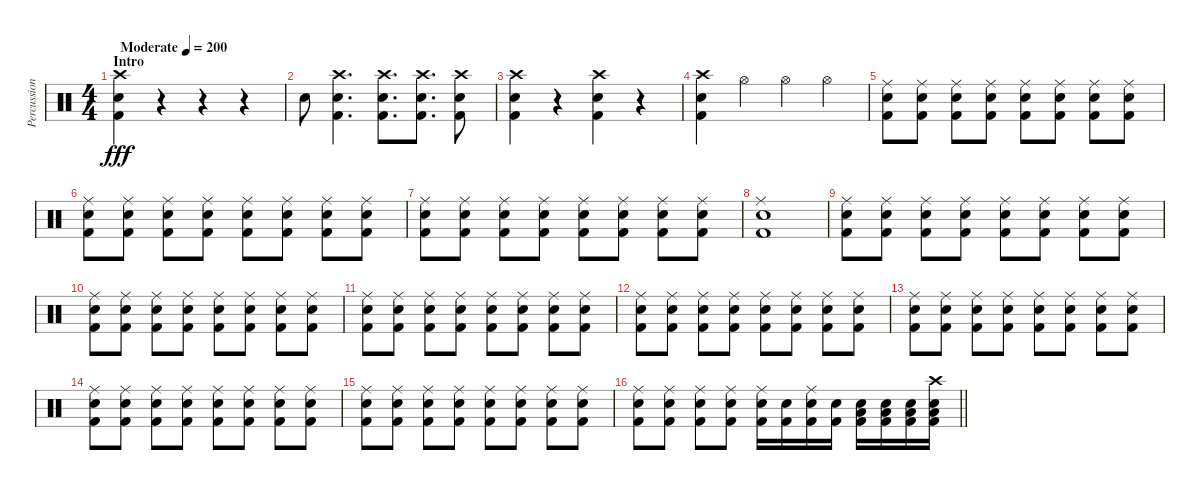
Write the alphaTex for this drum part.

\track ("Percussion" "Percussion") {instrument percussion}
\staff {score}
\articulation defaults
\ts (4 4)
\section ("" "Intro")
\tempo (200 "Moderate")
\clef neutral
\ks c
("Crash high (hit)" "Electric Snare (hit)" "Kick (hit) 2").4{dy fff} r.4 r.4 r.4 |
"Electric Snare (hit)".8 ("Crash high (hit)" "Electric Snare (hit)" "Kick (hit) 2").4{d} ("Crash high (hit)" "Electric Snare (hit)" "Kick (hit) 2").8{d} ("Crash high (hit)" "Electric Snare (hit)" "Kick (hit) 2").8{d} ("Crash high (hit)" "Electric Snare (hit)" "Kick (hit) 2").8 |
("Crash high (hit)" "Electric Snare (hit)" "Kick (hit) 2").4 r.4 ("Crash high (hit)" "Electric Snare (hit)" "Kick (hit) 2").4 r.4 |
("Crash high (hit)" "Electric Snare (hit)" "Kick (hit) 2").4 "Hi-Hat (open)".4 "Hi-Hat (open)".4 "Hi-Hat (open)".4 |
("Ride (middle)" "Electric Snare (hit)" "Kick (hit) 2").8 ("Ride (middle)" "Electric Snare (hit)" "Kick (hit) 2").8 ("Ride (middle)" "Electric Snare (hit)" "Kick (hit) 2").8 ("Ride (middle)" "Electric Snare (hit)" "Kick (hit) 2").8 ("Ride (middle)" "Electric Snare (hit)" "Kick (hit) 2").8 ("Ride (middle)" "Electric Snare (hit)" "Kick (hit) 2").8 ("Ride (middle)" "Electric Snare (hit)" "Kick (hit) 2").8 ("Ride (middle)" "Electric Snare (hit)" "Kick (hit) 2").8 |
("Ride (middle)" "Electric Snare (hit)" "Kick (hit) 2").8 ("Ride (middle)" "Electric Snare (hit)" "Kick (hit) 2").8 ("Ride (middle)" "Electric Snare (hit)" "Kick (hit) 2").8 ("Ride (middle)" "Electric Snare (hit)" "Kick (hit) 2").8 ("Ride (middle)" "Electric Snare (hit)" "Kick (hit) 2").8 ("Ride (middle)" "Electric Snare (hit)" "Kick (hit) 2").8 ("Ride (middle)" "Electric Snare (hit)" "Kick (hit) 2").8 ("Ride (middle)" "Electric Snare (hit)" "Kick (hit) 2").8 |
("Ride (middle)" "Electric Snare (hit)" "Kick (hit) 2").8 ("Ride (middle)" "Electric Snare (hit)" "Kick (hit) 2").8 ("Ride (middle)" "Electric Snare (hit)" "Kick (hit) 2").8 ("Ride (middle)" "Electric Snare (hit)" "Kick (hit) 2").8 ("Ride (middle)" "Electric Snare (hit)" "Kick (hit) 2").8 ("Ride (middle)" "Electric Snare (hit)" "Kick (hit) 2").8 ("Ride (middle)" "Electric Snare (hit)" "Kick (hit) 2").8 ("Ride (middle)" "Electric Snare (hit)" "Kick (hit) 2").8 |
("Ride (middle)" "Electric Snare (hit)" "Kick (hit) 2").1 |
("Ride (middle)" "Electric Snare (hit)" "Kick (hit) 2").8 ("Ride (middle)" "Electric Snare (hit)" "Kick (hit) 2").8 ("Ride (middle)" "Electric Snare (hit)" "Kick (hit) 2").8 ("Ride (middle)" "Electric Snare (hit)" "Kick (hit) 2").8 ("Ride (middle)" "Electric Snare (hit)" "Kick (hit) 2").8 ("Ride (middle)" "Electric Snare (hit)" "Kick (hit) 2").8 ("Ride (middle)" "Electric Snare (hit)" "Kick (hit) 2").8 ("Ride (middle)" "Electric Snare (hit)" "Kick (hit) 2").8 |
("Ride (middle)" "Electric Snare (hit)" "Kick (hit) 2").8 ("Ride (middle)" "Electric Snare (hit)" "Kick (hit) 2").8 ("Ride (middle)" "Electric Snare (hit)" "Kick (hit) 2").8 ("Ride (middle)" "Electric Snare (hit)" "Kick (hit) 2").8 ("Ride (middle)" "Electric Snare (hit)" "Kick (hit) 2").8 ("Ride (middle)" "Electric Snare (hit)" "Kick (hit) 2").8 ("Ride (middle)" "Electric Snare (hit)" "Kick (hit) 2").8 ("Ride (middle)" "Electric Snare (hit)" "Kick (hit) 2").8 |
("Ride (middle)" "Electric Snare (hit)" "Kick (hit) 2").8 ("Ride (middle)" "Electric Snare (hit)" "Kick (hit) 2").8 ("Ride (middle)" "Electric Snare (hit)" "Kick (hit) 2").8 ("Ride (middle)" "Electric Snare (hit)" "Kick (hit) 2").8 ("Ride (middle)" "Electric Snare (hit)" "Kick (hit) 2").8 ("Ride (middle)" "Electric Snare (hit)" "Kick (hit) 2").8 ("Ride (middle)" "Electric Snare (hit)" "Kick (hit) 2").8 ("Ride (middle)" "Electric Snare (hit)" "Kick (hit) 2").8 |
("Ride (middle)" "Electric Snare (hit)" "Kick (hit) 2").8 ("Ride (middle)" "Electric Snare (hit)" "Kick (hit) 2").8 ("Ride (middle)" "Electric Snare (hit)" "Kick (hit) 2").8 ("Ride (middle)" "Electric Snare (hit)" "Kick (hit) 2").8 ("Ride (middle)" "Electric Snare (hit)" "Kick (hit) 2").8 ("Ride (middle)" "Electric Snare (hit)" "Kick (hit) 2").8 ("Ride (middle)" "Electric Snare (hit)" "Kick (hit) 2").8 ("Ride (middle)" "Electric Snare (hit)" "Kick (hit) 2").8 |
("Ride (middle)" "Electric Snare (hit)" "Kick (hit) 2").8 ("Ride (middle)" "Electric Snare (hit)" "Kick (hit) 2").8 ("Ride (middle)" "Electric Snare (hit)" "Kick (hit) 2").8 ("Ride (middle)" "Electric Snare (hit)" "Kick (hit) 2").8 ("Ride (middle)" "Electric Snare (hit)" "Kick (hit) 2").8 ("Ride (middle)" "Electric Snare (hit)" "Kick (hit) 2").8 ("Ride (middle)" "Electric Snare (hit)" "Kick (hit) 2").8 ("Ride (middle)" "Electric Snare (hit)" "Kick (hit) 2").8 |
("Ride (middle)" "Electric Snare (hit)" "Kick (hit) 2").8 ("Ride (middle)" "Electric Snare (hit)" "Kick (hit) 2").8 ("Ride (middle)" "Electric Snare (hit)" "Kick (hit) 2").8 ("Ride (middle)" "Electric Snare (hit)" "Kick (hit) 2").8 ("Ride (middle)" "Electric Snare (hit)" "Kick (hit) 2").8 ("Ride (middle)" "Electric Snare (hit)" "Kick (hit) 2").8 ("Ride (middle)" "Electric Snare (hit)" "Kick (hit) 2").8 ("Ride (middle)" "Electric Snare (hit)" "Kick (hit) 2").8 |
("Ride (middle)" "Electric Snare (hit)" "Kick (hit) 2").8 ("Ride (middle)" "Electric Snare (hit)" "Kick (hit) 2").8 ("Ride (middle)" "Electric Snare (hit)" "Kick (hit) 2").8 ("Ride (middle)" "Electric Snare (hit)" "Kick (hit) 2").8 ("Ride (middle)" "Electric Snare (hit)" "Kick (hit) 2").8 ("Ride (middle)" "Electric Snare (hit)" "Kick (hit) 2").8 ("Ride (middle)" "Electric Snare (hit)" "Kick (hit) 2").8 ("Ride (middle)" "Electric Snare (hit)" "Kick (hit) 2").8 |
\barLineRight lightlight
("Ride (middle)" "Electric Snare (hit)" "Kick (hit) 2").8 ("Ride (middle)" "Electric Snare (hit)" "Kick (hit) 2").8 ("Ride (middle)" "Electric Snare (hit)" "Kick (hit) 2").8 ("Ride (middle)" "Electric Snare (hit)" "Kick (hit) 2").8 ("Ride (middle)" "Electric Snare (hit)" "Kick (hit) 2").16 ("Electric Snare (hit)" "Kick (hit) 2").16 ("Ride (middle)" "Electric Snare (hit)" "Kick (hit) 2").16 ("Electric Snare (hit)" "Kick (hit) 2").16 ("Low Tom (hit)" "Electric Snare (hit)" "Kick (hit) 2").16 ("Low Tom (hit)" "Electric Snare (hit)" "Kick (hit) 2").16 ("Low Tom (hit)" "Electric Snare (hit)" "Kick (hit) 2").16 ("Crash high (hit)" "Low Tom (hit)" "Electric Snare (hit)" "Kick (hit) 2").16
